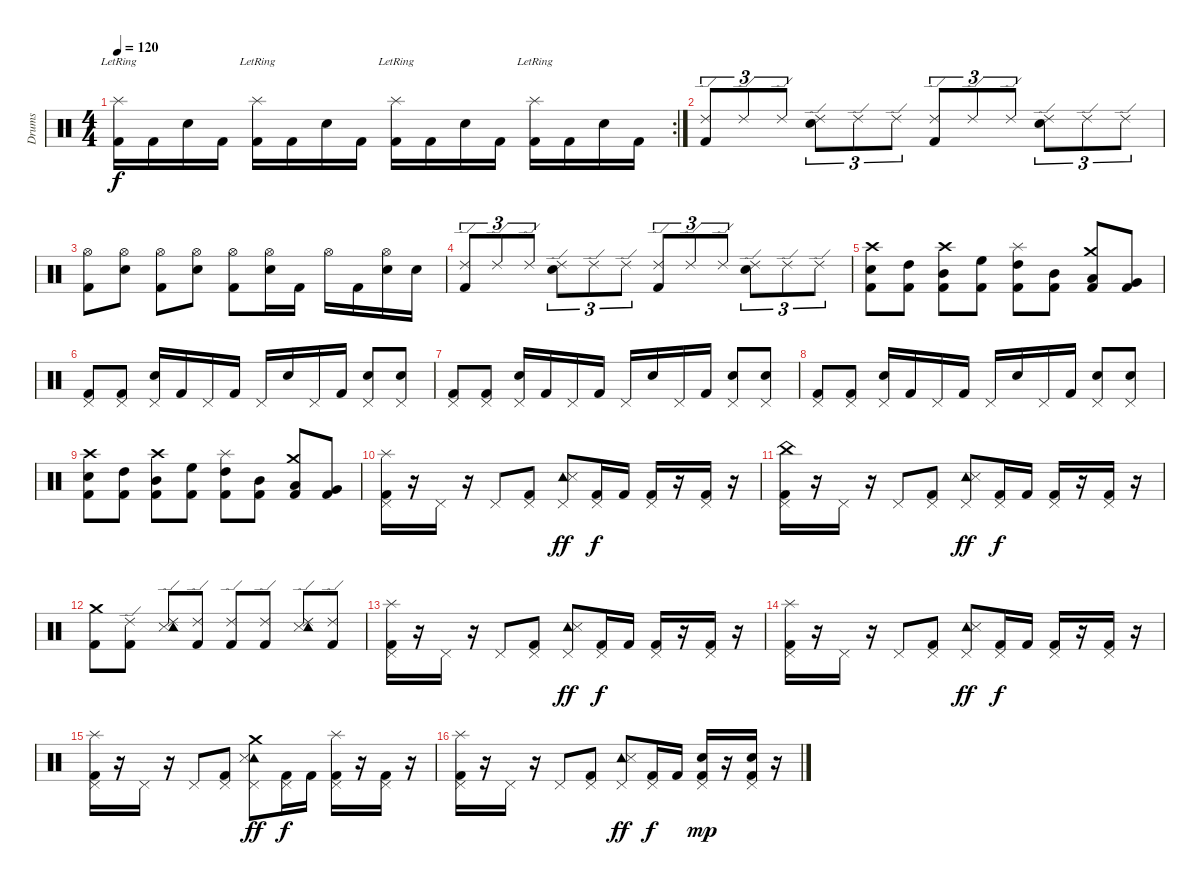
\track ("Drums" "Drums") {instrument percussion}
\staff {score}
\articulation defaults
\rc 2
\ts (4 4)
\tempo 120
\clef neutral
\ks c
("Splash (hit)"{lr} "Kick (hit) 2").16{dy f} "Kick (hit) 2".16 "Electric Snare (hit)".16 "Kick (hit) 2".16 ("Splash (hit)"{lr} "Kick (hit) 2").16 "Kick (hit) 2".16 "Electric Snare (hit)".16 "Kick (hit) 2".16 ("Splash (hit)"{lr} "Kick (hit) 2").16 "Kick (hit) 2".16 "Electric Snare (hit)".16 "Kick (hit) 2".16 ("Splash (hit)"{lr} "Kick (hit) 2").16 "Kick (hit) 2".16 "Electric Snare (hit)".16 "Kick (hit) 2".16 |
("Ride (edge) 2" "Kick (hit) 2").8{tu (3 2)} "Ride (edge) 2".8{tu (3 2)} "Ride (edge) 2".8{tu (3 2)} ("Ride (edge) 2" "Electric Snare (hit)").8{tu (3 2)} "Ride (edge) 2".8{tu (3 2)} "Ride (edge) 2".8{tu (3 2)} ("Ride (edge) 2" "Kick (hit) 2").8{tu (3 2)} "Ride (edge) 2".8{tu (3 2)} "Ride (edge) 2".8{tu (3 2)} ("Ride (edge) 2" "Electric Snare (hit)").8{tu (3 2)} "Ride (edge) 2".8{tu (3 2)} "Ride (edge) 2".8{tu (3 2)} |
("Hi-Hat (open)" "Kick (hit) 2").8 ("Hi-Hat (open)" "Electric Snare (hit)").8 ("Hi-Hat (open)" "Kick (hit) 2").8 ("Hi-Hat (open)" "Electric Snare (hit)").8 ("Hi-Hat (open)" "Kick (hit) 2").8 ("Hi-Hat (open)" "Electric Snare (hit)").16 "Kick (hit) 2".16 "Hi-Hat (open)".16 "Kick (hit) 2".16 ("Hi-Hat (open)" "Electric Snare (hit)").16 "Electric Snare (hit)".16 |
("Ride (edge) 2" "Kick (hit) 2").8{tu (3 2)} "Ride (edge) 2".8{tu (3 2)} "Ride (edge) 2".8{tu (3 2)} ("Ride (edge) 2" "Electric Snare (hit)").8{tu (3 2)} "Ride (edge) 2".8{tu (3 2)} "Ride (edge) 2".8{tu (3 2)} ("Ride (edge) 2" "Kick (hit) 2").8{tu (3 2)} "Ride (edge) 2".8{tu (3 2)} "Ride (edge) 2".8{tu (3 2)} ("Ride (edge) 2" "Electric Snare (hit)").8{tu (3 2)} "Ride (edge) 2".8{tu (3 2)} "Ride (edge) 2".8{tu (3 2)} |
("Crash high (hit)" "Electric Snare (hit)" "Kick (hit) 2").8 ("High Tom (hit)" "Kick (hit) 2").8 ("Crash high (hit)" "Mid Tom (hit)" "Kick (hit) 2").8 ("High Floor Tom (hit)" "Kick (hit) 2").8 ("Splash (hit)" "High Tom (hit)" "Kick (hit) 2").8 ("Mid Tom (hit)" "Kick (hit) 2").8 ("Crash medium (hit)" "Low Tom (hit)" "Kick (hit) 2").8 ("Very Low Tom (hit)" "Kick (hit) 2").8 |
("Pedal Hi-Hat (hit)" "Kick (hit) 2").8 ("Pedal Hi-Hat (hit)" "Kick (hit) 2").8 ("Pedal Hi-Hat (hit)" "Electric Snare (hit)").16 "Kick (hit) 2".16 "Pedal Hi-Hat (hit)".16 "Kick (hit) 2".16 "Pedal Hi-Hat (hit)".16 "Electric Snare (hit)".16 "Pedal Hi-Hat (hit)".16 "Kick (hit) 2".16 ("Pedal Hi-Hat (hit)" "Electric Snare (hit)").8 ("Pedal Hi-Hat (hit)" "Electric Snare (hit)").8 |
("Pedal Hi-Hat (hit)" "Kick (hit) 2").8 ("Pedal Hi-Hat (hit)" "Kick (hit) 2").8 ("Pedal Hi-Hat (hit)" "Electric Snare (hit)").16 "Kick (hit) 2".16 "Pedal Hi-Hat (hit)".16 "Kick (hit) 2".16 "Pedal Hi-Hat (hit)".16 "Electric Snare (hit)".16 "Pedal Hi-Hat (hit)".16 "Kick (hit) 2".16 ("Pedal Hi-Hat (hit)" "Electric Snare (hit)").8 ("Pedal Hi-Hat (hit)" "Electric Snare (hit)").8 |
("Pedal Hi-Hat (hit)" "Kick (hit) 2").8 ("Pedal Hi-Hat (hit)" "Kick (hit) 2").8 ("Pedal Hi-Hat (hit)" "Electric Snare (hit)").16 "Kick (hit) 2".16 "Pedal Hi-Hat (hit)".16 "Kick (hit) 2".16 "Pedal Hi-Hat (hit)".16 "Electric Snare (hit)".16 "Pedal Hi-Hat (hit)".16 "Kick (hit) 2".16 ("Pedal Hi-Hat (hit)" "Electric Snare (hit)").8 ("Pedal Hi-Hat (hit)" "Electric Snare (hit)").8 |
("Crash high (hit)" "Electric Snare (hit)" "Kick (hit) 2").8 ("High Tom (hit)" "Kick (hit) 2").8 ("Crash high (hit)" "Mid Tom (hit)" "Kick (hit) 2").8 ("High Floor Tom (hit)" "Kick (hit) 2").8 ("Splash (hit)" "High Tom (hit)" "Kick (hit) 2").8 ("Mid Tom (hit)" "Kick (hit) 2").8 ("Crash medium (hit)" "Low Tom (hit)" "Kick (hit) 2").8 ("Very Low Tom (hit)" "Kick (hit) 2").8 |
("Splash (hit)" "Pedal Hi-Hat (hit)" "Kick (hit) 2").16 r.16 "Pedal Hi-Hat (hit)".16 r.16 "Pedal Hi-Hat (hit)".8 ("Pedal Hi-Hat (hit)" "Kick (hit) 2").8 ("Pedal Hi-Hat (hit)" "Tambourine (hit)" "Snare (side stick) 3").8{dy ff} ("Pedal Hi-Hat (hit)" "Kick (hit) 2").16{dy f} "Kick (hit) 2".16 ("Pedal Hi-Hat (hit)" "Kick (hit) 2").16 r.16 ("Pedal Hi-Hat (hit)" "Kick (hit) 2").16 r.16 |
("China (hit)" "Pedal Hi-Hat (hit)" "Kick (hit) 2").16 r.16 "Pedal Hi-Hat (hit)".16 r.16 "Pedal Hi-Hat (hit)".8 ("Pedal Hi-Hat (hit)" "Kick (hit) 2").8 ("Pedal Hi-Hat (hit)" "Tambourine (hit)" "Snare (side stick) 3").8{dy ff} ("Pedal Hi-Hat (hit)" "Kick (hit) 2").16{dy f} "Kick (hit) 2".16 ("Pedal Hi-Hat (hit)" "Kick (hit) 2").16 r.16 ("Pedal Hi-Hat (hit)" "Kick (hit) 2").16 r.16 |
("Crash medium (hit)" "Kick (hit) 2").8 ("Ride (edge) 2" "Kick (hit) 2").8 ("Ride (edge) 2" "Snare (side stick) 3" "Tambourine (hit)").8 ("Ride (edge) 2" "Kick (hit) 2").8 ("Ride (edge) 2" "Kick (hit) 2").8 ("Ride (edge) 2" "Kick (hit) 2").8 ("Ride (edge) 2" "Snare (side stick) 3" "Tambourine (hit)").8 ("Ride (edge) 2" "Kick (hit) 2").8 |
("Splash (hit)" "Pedal Hi-Hat (hit)" "Kick (hit) 2").16 r.16 "Pedal Hi-Hat (hit)".16 r.16 "Pedal Hi-Hat (hit)".8 ("Pedal Hi-Hat (hit)" "Kick (hit) 2").8 ("Pedal Hi-Hat (hit)" "Tambourine (hit)" "Snare (side stick) 3").8{dy ff} ("Pedal Hi-Hat (hit)" "Kick (hit) 2").16{dy f} "Kick (hit) 2".16 ("Pedal Hi-Hat (hit)" "Kick (hit) 2").16 r.16 ("Pedal Hi-Hat (hit)" "Kick (hit) 2").16 r.16 |
("Splash (hit)" "Pedal Hi-Hat (hit)" "Kick (hit) 2").16 r.16 "Pedal Hi-Hat (hit)".16 r.16 "Pedal Hi-Hat (hit)".8 ("Pedal Hi-Hat (hit)" "Kick (hit) 2").8 ("Pedal Hi-Hat (hit)" "Tambourine (hit)" "Snare (side stick) 3").8{dy ff} ("Pedal Hi-Hat (hit)" "Kick (hit) 2").16{dy f} "Kick (hit) 2".16 ("Pedal Hi-Hat (hit)" "Kick (hit) 2").16 r.16 ("Pedal Hi-Hat (hit)" "Kick (hit) 2").16 r.16 |
("Splash (hit)" "Pedal Hi-Hat (hit)" "Kick (hit) 2").16 r.16 "Pedal Hi-Hat (hit)".16 r.16 "Pedal Hi-Hat (hit)".8 ("Pedal Hi-Hat (hit)" "Kick (hit) 2").8 ("Crash medium (hit)" "Pedal Hi-Hat (hit)" "Tambourine (hit)" "Snare (side stick) 3").8{dy ff} ("Pedal Hi-Hat (hit)" "Kick (hit) 2").16{dy f} "Kick (hit) 2".16 ("Splash (hit)" "Pedal Hi-Hat (hit)" "Kick (hit) 2").16 r.16 ("Pedal Hi-Hat (hit)" "Kick (hit) 2").16 r.16 |
("Splash (hit)" "Pedal Hi-Hat (hit)" "Kick (hit) 2").16 r.16 "Pedal Hi-Hat (hit)".16 r.16 "Pedal Hi-Hat (hit)".8 ("Pedal Hi-Hat (hit)" "Kick (hit) 2").8 ("Pedal Hi-Hat (hit)" "Tambourine (hit)" "Snare (side stick) 3").8{dy ff} ("Pedal Hi-Hat (hit)" "Kick (hit) 2").16{dy f} "Kick (hit) 2".16 ("Pedal Hi-Hat (hit)" "Electric Snare (hit)" "Kick (hit) 2").16{dy mp} r.16 ("Pedal Hi-Hat (hit)" "Electric Snare (hit)" "Kick (hit) 2").16 r.16
